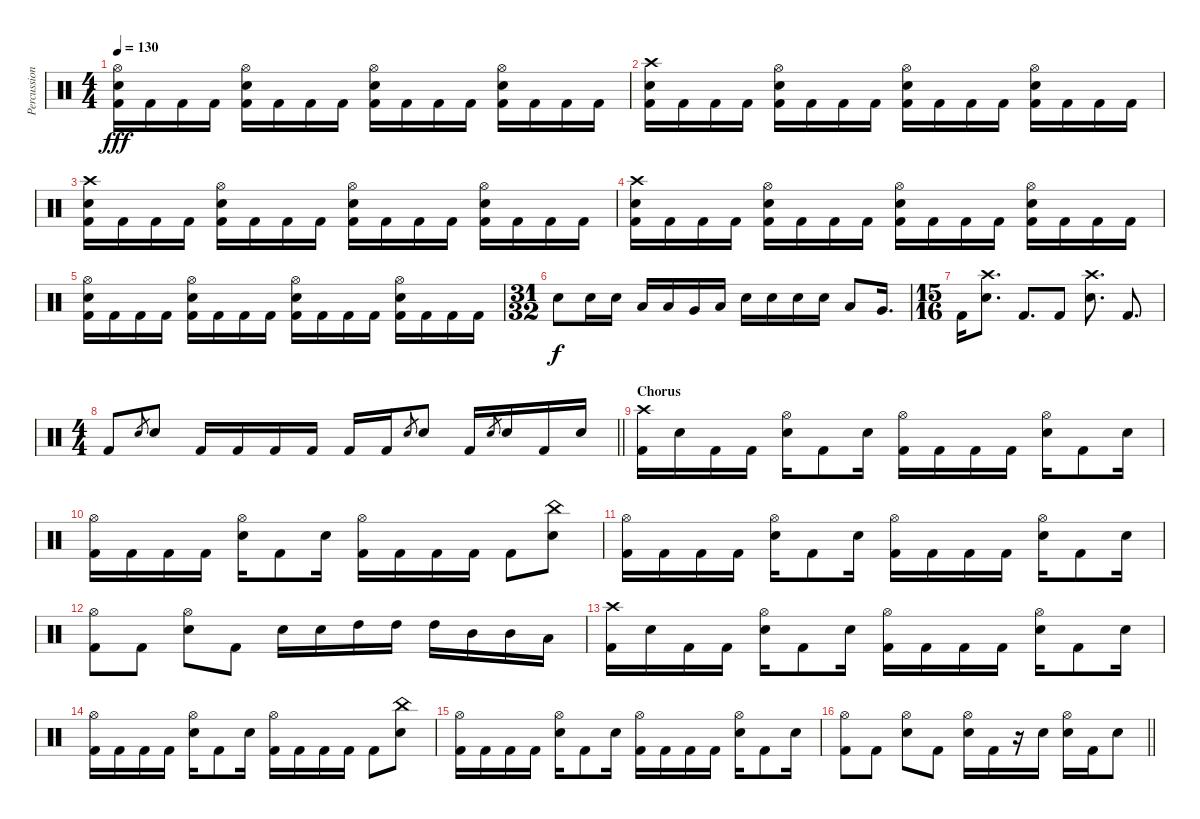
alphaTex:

\track ("Percussion" "Percussion") {instrument percussion}
\staff {score}
\articulation defaults
\ts (4 4)
\tempo 130
\clef neutral
\ks c
("Kick (hit) 2" "Snare (hit) 2" "Hi-Hat (open)").16{dy fff} "Kick (hit) 2".16 "Kick (hit) 2".16 "Kick (hit) 2".16 ("Kick (hit) 2" "Snare (hit) 2" "Hi-Hat (open)").16 "Kick (hit) 2".16 "Kick (hit) 2".16 "Kick (hit) 2".16 ("Kick (hit) 2" "Snare (hit) 2" "Hi-Hat (open)").16 "Kick (hit) 2".16 "Kick (hit) 2".16 "Kick (hit) 2".16 ("Kick (hit) 2" "Snare (hit) 2" "Hi-Hat (open)").16 "Kick (hit) 2".16 "Kick (hit) 2".16 "Kick (hit) 2".16 |
("Kick (hit) 2" "Snare (hit) 2" "Crash high (hit)").16 "Kick (hit) 2".16 "Kick (hit) 2".16 "Kick (hit) 2".16 ("Kick (hit) 2" "Snare (hit) 2" "Hi-Hat (open)").16 "Kick (hit) 2".16 "Kick (hit) 2".16 "Kick (hit) 2".16 ("Kick (hit) 2" "Snare (hit) 2" "Hi-Hat (open)").16 "Kick (hit) 2".16 "Kick (hit) 2".16 "Kick (hit) 2".16 ("Kick (hit) 2" "Snare (hit) 2" "Hi-Hat (open)").16 "Kick (hit) 2".16 "Kick (hit) 2".16 "Kick (hit) 2".16 |
("Kick (hit) 2" "Snare (hit) 2" "Crash high (hit)").16 "Kick (hit) 2".16 "Kick (hit) 2".16 "Kick (hit) 2".16 ("Kick (hit) 2" "Snare (hit) 2" "Hi-Hat (open)").16 "Kick (hit) 2".16 "Kick (hit) 2".16 "Kick (hit) 2".16 ("Kick (hit) 2" "Snare (hit) 2" "Hi-Hat (open)").16 "Kick (hit) 2".16 "Kick (hit) 2".16 "Kick (hit) 2".16 ("Kick (hit) 2" "Snare (hit) 2" "Hi-Hat (open)").16 "Kick (hit) 2".16 "Kick (hit) 2".16 "Kick (hit) 2".16 |
("Kick (hit) 2" "Snare (hit) 2" "Crash high (hit)").16 "Kick (hit) 2".16 "Kick (hit) 2".16 "Kick (hit) 2".16 ("Kick (hit) 2" "Snare (hit) 2" "Hi-Hat (open)").16 "Kick (hit) 2".16 "Kick (hit) 2".16 "Kick (hit) 2".16 ("Kick (hit) 2" "Snare (hit) 2" "Hi-Hat (open)").16 "Kick (hit) 2".16 "Kick (hit) 2".16 "Kick (hit) 2".16 ("Kick (hit) 2" "Snare (hit) 2" "Hi-Hat (open)").16 "Kick (hit) 2".16 "Kick (hit) 2".16 "Kick (hit) 2".16 |
("Kick (hit) 2" "Snare (hit) 2" "Hi-Hat (open)").16 "Kick (hit) 2".16 "Kick (hit) 2".16 "Kick (hit) 2".16 ("Kick (hit) 2" "Snare (hit) 2" "Hi-Hat (open)").16 "Kick (hit) 2".16 "Kick (hit) 2".16 "Kick (hit) 2".16 ("Kick (hit) 2" "Snare (hit) 2" "Hi-Hat (open)").16 "Kick (hit) 2".16 "Kick (hit) 2".16 "Kick (hit) 2".16 ("Kick (hit) 2" "Snare (hit) 2" "Hi-Hat (open)").16 "Kick (hit) 2".16 "Kick (hit) 2".16 "Kick (hit) 2".16 |
\ts (31 32)
"Snare (hit) 2".8{dy f} "Snare (hit) 2".16 "Snare (hit) 2".16 "Low Tom (hit)".16 "Low Tom (hit)".16 "Very Low Tom (hit)".16 "Low Floor Tom (hit)".16 "Snare (hit) 2".16 "Snare (hit) 2".16 "Snare (hit) 2".16 "Snare (hit) 2".16 "Low Tom (hit)".8 "Very Low Tom (hit)".16{d} |
\ts (15 16)
"Kick (hit) 2".16 ("Snare (hit) 2" "Crash high (hit)").8{d} "Kick (hit) 2".8{d} "Kick (hit) 2".8 ("Snare (hit) 2" "Crash high (hit)").8{d} "Kick (hit) 2".8{d} |
\ts (4 4)
\barLineRight lightlight "Kick (hit) 2".8 "Snare (hit) 2".8{gr} "Snare (hit) 2".8 "Kick (hit) 2".16 "Kick (hit) 2".16 "Kick (hit) 2".16 "Kick (hit) 2".16 "Kick (hit) 2".16 "Kick (hit) 2".16 "Snare (hit) 2".8{gr} "Snare (hit) 2".8 "Kick (hit) 2".16 "Snare (hit) 2".8{gr} "Snare (hit) 2".16 "Kick (hit) 2".16 "Snare (hit) 2".16
|
\section ("" "Chorus")
("Kick (hit) 2" "Crash high (hit)").16 "Snare (hit) 2".16 "Kick (hit) 2".16 "Kick (hit) 2".16 ("Snare (hit) 2" "Hi-Hat (open)").16 "Kick (hit) 2".8 "Snare (hit) 2".16 ("Kick (hit) 2" "Hi-Hat (open)").16 "Kick (hit) 2".16 "Kick (hit) 2".16 "Kick (hit) 2".16 ("Snare (hit) 2" "Hi-Hat (open)").16 "Kick (hit) 2".8 "Snare (hit) 2".16 |
("Kick (hit) 2" "Hi-Hat (open)").16 "Kick (hit) 2".16 "Kick (hit) 2".16 "Kick (hit) 2".16 ("Snare (hit) 2" "Hi-Hat (open)").16 "Kick (hit) 2".8 "Snare (hit) 2".16 ("Kick (hit) 2" "Hi-Hat (open)").16 "Kick (hit) 2".16 "Kick (hit) 2".16 "Kick (hit) 2".16 "Kick (hit) 2".8 ("Snare (hit) 2" "China (hit)").8 |
("Kick (hit) 2" "Hi-Hat (open)").16 "Kick (hit) 2".16 "Kick (hit) 2".16 "Kick (hit) 2".16 ("Snare (hit) 2" "Hi-Hat (open)").16 "Kick (hit) 2".8 "Snare (hit) 2".16 ("Kick (hit) 2" "Hi-Hat (open)").16 "Kick (hit) 2".16 "Kick (hit) 2".16 "Kick (hit) 2".16 ("Snare (hit) 2" "Hi-Hat (open)").16 "Kick (hit) 2".8 "Snare (hit) 2".16 |
("Kick (hit) 2" "Hi-Hat (open)").8 "Kick (hit) 2".8 ("Snare (hit) 2" "Hi-Hat (open)").8 "Kick (hit) 2".8 "Snare (hit) 2".16 "Snare (hit) 2".16 "High Tom (hit)".16 "High Tom (hit)".16 "High Tom (hit)".16 "Mid Tom (hit)".16 "Mid Tom (hit)".16 "Low Tom (hit)".16 |
("Kick (hit) 2" "Crash high (hit)").16 "Snare (hit) 2".16 "Kick (hit) 2".16 "Kick (hit) 2".16 ("Snare (hit) 2" "Hi-Hat (open)").16 "Kick (hit) 2".8 "Snare (hit) 2".16 ("Kick (hit) 2" "Hi-Hat (open)").16 "Kick (hit) 2".16 "Kick (hit) 2".16 "Kick (hit) 2".16 ("Snare (hit) 2" "Hi-Hat (open)").16 "Kick (hit) 2".8 "Snare (hit) 2".16 |
("Kick (hit) 2" "Hi-Hat (open)").16 "Kick (hit) 2".16 "Kick (hit) 2".16 "Kick (hit) 2".16 ("Snare (hit) 2" "Hi-Hat (open)").16 "Kick (hit) 2".8 "Snare (hit) 2".16 ("Kick (hit) 2" "Hi-Hat (open)").16 "Kick (hit) 2".16 "Kick (hit) 2".16 "Kick (hit) 2".16 "Kick (hit) 2".8 ("Snare (hit) 2" "China (hit)").8 |
("Kick (hit) 2" "Hi-Hat (open)").16 "Kick (hit) 2".16 "Kick (hit) 2".16 "Kick (hit) 2".16 ("Snare (hit) 2" "Hi-Hat (open)").16 "Kick (hit) 2".8 "Snare (hit) 2".16 ("Kick (hit) 2" "Hi-Hat (open)").16 "Kick (hit) 2".16 "Kick (hit) 2".16 "Kick (hit) 2".16 ("Snare (hit) 2" "Hi-Hat (open)").16 "Kick (hit) 2".8 "Snare (hit) 2".16 |
\barLineRight lightlight
("Kick (hit) 2" "Hi-Hat (open)").8 "Kick (hit) 2".8 ("Snare (hit) 2" "Hi-Hat (open)").8 "Kick (hit) 2".8 ("Snare (hit) 2" "Hi-Hat (open)").16 "Kick (hit) 2".16 r.16 "Snare (hit) 2".16 ("Snare (hit) 2" "Hi-Hat (open)").16 "Kick (hit) 2".16 "Snare (hit) 2".8
